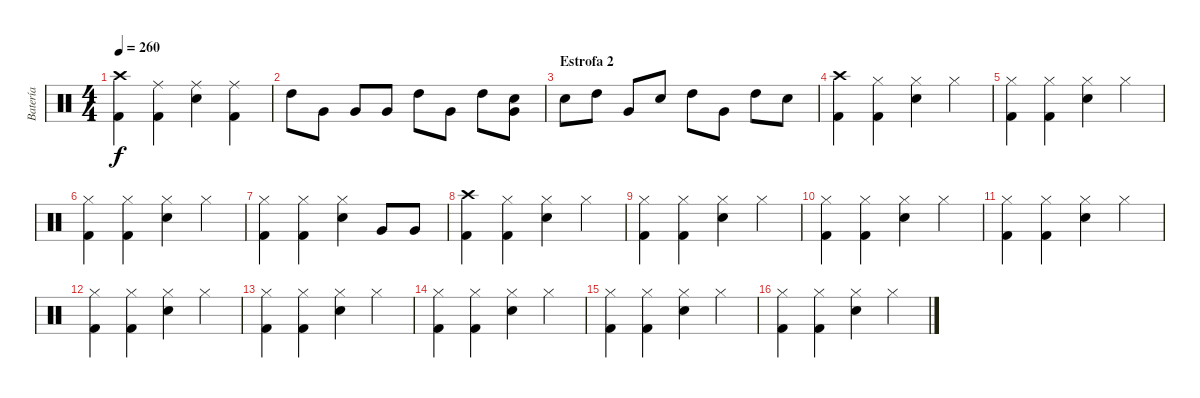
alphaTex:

\track ("Batería" "Batería") {instrument percussion}
\staff {score}
\articulation defaults
\ts (4 4)
\tempo 260
\clef neutral
\ks c
("Kick (hit) 2" "Crash high (hit)").4{dy f} ("Kick (hit) 2" "Ride (middle)").4 ("Snare (hit) 2" "Ride (middle)").4 ("Kick (hit) 2" "Ride (middle)").4 |
"High Tom (hit)".8 "Very Low Tom (hit)".8 "Very Low Tom (hit)".8 "Very Low Tom (hit)".8 "High Tom (hit)".8 "Very Low Tom (hit)".8 "High Tom (hit)".8 ("Snare (hit)" "Very Low Tom (hit)").8 |
\section ("" "Estrofa 2")
"Snare (hit) 2".8 "High Tom (hit)".8 "Very Low Tom (hit)".8 "Snare (hit) 2".8 "High Tom (hit)".8 "Very Low Tom (hit)".8 "High Tom (hit)".8 "Snare (hit) 2".8 |
("Kick (hit) 2" "Crash high (hit)").4 ("Kick (hit) 2" "Hi-Hat (closed)").4 ("Snare (hit) 2" "Hi-Hat (closed)").4 "Hi-Hat (closed)".4 |
("Kick (hit) 2" "Hi-Hat (closed)").4 ("Kick (hit) 2" "Hi-Hat (closed)").4 ("Snare (hit) 2" "Hi-Hat (closed)").4 "Hi-Hat (closed)".4 |
("Kick (hit) 2" "Hi-Hat (closed)").4 ("Kick (hit) 2" "Hi-Hat (closed)").4 ("Snare (hit) 2" "Hi-Hat (closed)").4 "Hi-Hat (closed)".4 |
("Kick (hit) 2" "Hi-Hat (closed)").4 ("Kick (hit) 2" "Hi-Hat (closed)").4 ("Snare (hit) 2" "Hi-Hat (closed)").4 "Very Low Tom (hit)".8 "Very Low Tom (hit)".8 |
("Kick (hit) 2" "Crash high (hit)").4 ("Kick (hit) 2" "Hi-Hat (closed)").4 ("Snare (hit) 2" "Hi-Hat (closed)").4 "Hi-Hat (closed)".4 |
("Kick (hit) 2" "Hi-Hat (closed)").4 ("Kick (hit) 2" "Hi-Hat (closed)").4 ("Snare (hit) 2" "Hi-Hat (closed)").4 "Hi-Hat (closed)".4 |
("Kick (hit) 2" "Hi-Hat (closed)").4 ("Kick (hit) 2" "Hi-Hat (closed)").4 ("Snare (hit) 2" "Hi-Hat (closed)").4 "Hi-Hat (closed)".4 |
("Kick (hit) 2" "Hi-Hat (closed)").4 ("Kick (hit) 2" "Hi-Hat (closed)").4 ("Snare (hit) 2" "Hi-Hat (closed)").4 "Hi-Hat (closed)".4 |
("Kick (hit) 2" "Hi-Hat (closed)").4 ("Kick (hit) 2" "Hi-Hat (closed)").4 ("Snare (hit) 2" "Hi-Hat (closed)").4 "Hi-Hat (closed)".4 |
("Kick (hit) 2" "Hi-Hat (closed)").4 ("Kick (hit) 2" "Hi-Hat (closed)").4 ("Snare (hit) 2" "Hi-Hat (closed)").4 "Hi-Hat (closed)".4 |
("Kick (hit) 2" "Hi-Hat (closed)").4 ("Kick (hit) 2" "Hi-Hat (closed)").4 ("Snare (hit) 2" "Hi-Hat (closed)").4 "Hi-Hat (closed)".4 |
("Kick (hit) 2" "Hi-Hat (closed)").4 ("Kick (hit) 2" "Hi-Hat (closed)").4 ("Snare (hit) 2" "Hi-Hat (closed)").4 "Hi-Hat (closed)".4 |
("Kick (hit) 2" "Hi-Hat (closed)").4 ("Kick (hit) 2" "Hi-Hat (closed)").4 ("Snare (hit) 2" "Hi-Hat (closed)").4 "Hi-Hat (closed)".4
